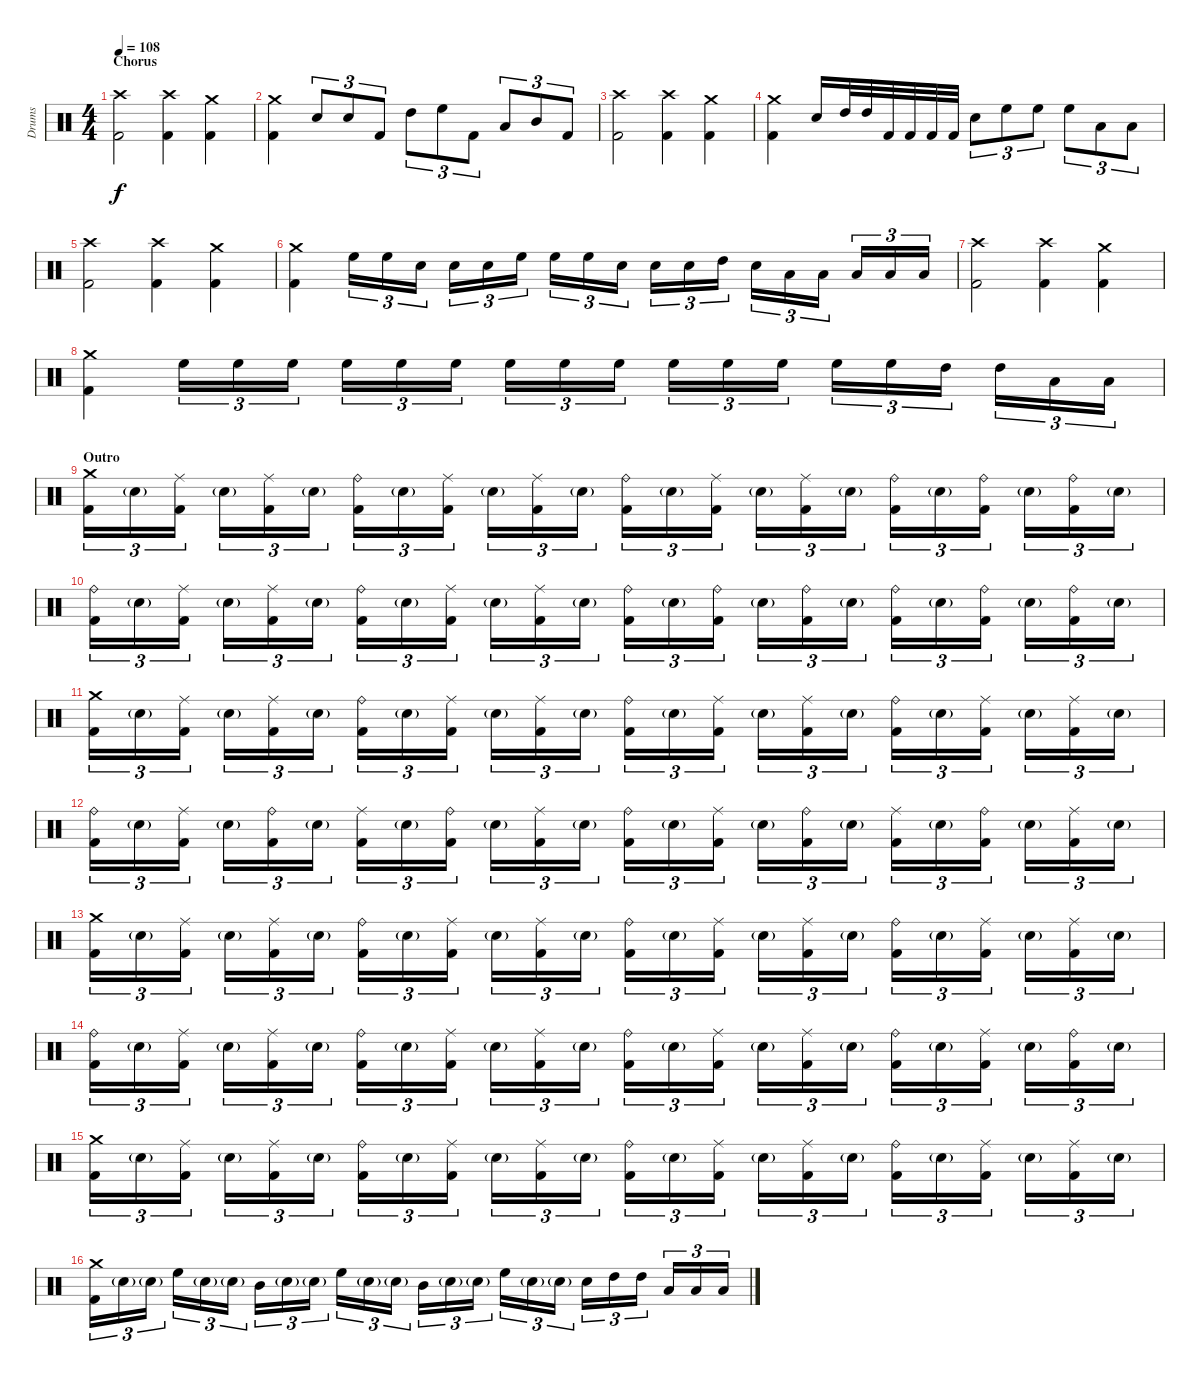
\track ("Drums" "Drums") {instrument percussion}
\staff {score}
\articulation defaults
\ts (4 4)
\section ("" "Chorus")
\tempo 108
\clef neutral
\ks c
("Crash high (hit)" "Kick (hit) 2").2{dy f} ("Crash high (hit)" "Kick (hit) 2").4 ("Crash medium (hit)" "Kick (hit) 2").4 |
("Crash medium (hit)" "Kick (hit) 2").4 "Snare (hit) 2".8{tu (3 2)} "Snare (hit) 2".8{tu (3 2)} "Kick (hit) 2".8{tu (3 2)} "High Tom (hit)".8{tu (3 2)} "High Floor Tom (hit)".8{tu (3 2)} "Kick (hit) 2".8{tu (3 2)} "Low Tom (hit)".8{tu (3 2)} "Mid Tom (hit)".8{tu (3 2)} "Kick (hit) 2".8{tu (3 2)} |
("Crash high (hit)" "Kick (hit) 2").2 ("Crash high (hit)" "Kick (hit) 2").4 ("Crash medium (hit)" "Kick (hit) 2").4 |
("Crash medium (hit)" "Kick (hit) 2").4 "Snare (hit) 2".16 "High Tom (hit)".32 "High Tom (hit)".32 "Kick (hit) 2".32 "Kick (hit) 2".32 "Kick (hit) 2".32 "Kick (hit) 2".32 "Snare (hit) 2".8{tu (3 2)} "High Floor Tom (hit)".8{tu (3 2)} "High Floor Tom (hit)".8{tu (3 2)} "High Floor Tom (hit)".8{tu (3 2)} "Low Tom (hit)".8{tu (3 2)} "Low Tom (hit)".8{tu (3 2)} |
("Crash high (hit)" "Kick (hit) 2").2 ("Crash high (hit)" "Kick (hit) 2").4 ("Crash medium (hit)" "Kick (hit) 2").4 |
("Crash medium (hit)" "Kick (hit) 2").4 "High Floor Tom (hit)".16{tu (3 2)} "High Floor Tom (hit)".16{tu (3 2)} "Snare (hit) 2".16{tu (3 2)} "Snare (hit) 2".16{tu (3 2)} "Snare (hit) 2".16{tu (3 2)} "High Floor Tom (hit)".16{tu (3 2)} "High Floor Tom (hit)".16{tu (3 2)} "High Floor Tom (hit)".16{tu (3 2)} "Snare (hit) 2".16{tu (3 2)} "Snare (hit) 2".16{tu (3 2)} "Snare (hit) 2".16{tu (3 2)} "High Tom (hit)".16{tu (3 2)} "Snare (hit) 2".16{tu (3 2)} "Low Tom (hit)".16{tu (3 2)} "Low Tom (hit)".16{tu (3 2)} "Low Tom (hit)".16{tu (3 2)} "Low Tom (hit)".16{tu (3 2)} "Low Tom (hit)".16{tu (3 2)} |
("Crash high (hit)" "Kick (hit) 2").2 ("Crash high (hit)" "Kick (hit) 2").4 ("Crash medium (hit)" "Kick (hit) 2").4 |
("Crash medium (hit)" "Kick (hit) 2").4 "High Floor Tom (hit)".16{tu (3 2)} "High Floor Tom (hit)".16{tu (3 2)} "High Floor Tom (hit)".16{tu (3 2)} "High Floor Tom (hit)".16{tu (3 2)} "High Floor Tom (hit)".16{tu (3 2)} "High Floor Tom (hit)".16{tu (3 2)} "High Floor Tom (hit)".16{tu (3 2)} "High Floor Tom (hit)".16{tu (3 2)} "High Floor Tom (hit)".16{tu (3 2)} "High Floor Tom (hit)".16{tu (3 2)} "High Floor Tom (hit)".16{tu (3 2)} "High Floor Tom (hit)".16{tu (3 2)} "High Floor Tom (hit)".16{tu (3 2)} "High Floor Tom (hit)".16{tu (3 2)} "High Tom (hit)".16{tu (3 2)} "High Tom (hit)".16{tu (3 2)} "Low Tom (hit)".16{tu (3 2)} "Low Tom (hit)".16{tu (3 2)} |
\section ("" "Outro")
("Crash medium (hit)" "Kick (hit) 2").16{tu (3 2)} "Snare (hit) 2"{g}.16{tu (3 2)} ("Ride (middle)" "Kick (hit) 2").16{tu (3 2)} "Snare (hit) 2"{g}.16{tu (3 2)} ("Ride (middle)" "Kick (hit) 2").16{tu (3 2)} "Snare (hit) 2"{g}.16{tu (3 2)} ("Ride (bell)" "Kick (hit) 2").16{tu (3 2)} "Snare (hit) 2"{g}.16{tu (3 2)} ("Ride (middle)" "Kick (hit) 2").16{tu (3 2)} "Snare (hit) 2"{g}.16{tu (3 2)} ("Ride (middle)" "Kick (hit) 2").16{tu (3 2)} "Snare (hit) 2"{g}.16{tu (3 2)} ("Ride (bell)" "Kick (hit) 2").16{tu (3 2)} "Snare (hit) 2"{g}.16{tu (3 2)} ("Ride (middle)" "Kick (hit) 2").16{tu (3 2)} "Snare (hit) 2"{g}.16{tu (3 2)} ("Ride (middle)" "Kick (hit) 2").16{tu (3 2)} "Snare (hit) 2"{g}.16{tu (3 2)} ("Ride (bell)" "Kick (hit) 2").16{tu (3 2)} "Snare (hit) 2"{g}.16{tu (3 2)} ("Ride (bell)" "Kick (hit) 2").16{tu (3 2)} "Snare (hit) 2"{g}.16{tu (3 2)} ("Ride (bell)" "Kick (hit) 2").16{tu (3 2)} "Snare (hit) 2"{g}.16{tu (3 2)} |
("Ride (bell)" "Kick (hit) 2").16{tu (3 2)} "Snare (hit) 2"{g}.16{tu (3 2)} ("Ride (middle)" "Kick (hit) 2").16{tu (3 2)} "Snare (hit) 2"{g}.16{tu (3 2)} ("Ride (middle)" "Kick (hit) 2").16{tu (3 2)} "Snare (hit) 2"{g}.16{tu (3 2)} ("Ride (bell)" "Kick (hit) 2").16{tu (3 2)} "Snare (hit) 2"{g}.16{tu (3 2)} ("Ride (middle)" "Kick (hit) 2").16{tu (3 2)} "Snare (hit) 2"{g}.16{tu (3 2)} ("Ride (middle)" "Kick (hit) 2").16{tu (3 2)} "Snare (hit) 2"{g}.16{tu (3 2)} ("Ride (bell)" "Kick (hit) 2").16{tu (3 2)} "Snare (hit) 2"{g}.16{tu (3 2)} ("Ride (bell)" "Kick (hit) 2").16{tu (3 2)} "Snare (hit) 2"{g}.16{tu (3 2)} ("Ride (bell)" "Kick (hit) 2").16{tu (3 2)} "Snare (hit) 2"{g}.16{tu (3 2)} ("Ride (bell)" "Kick (hit) 2").16{tu (3 2)} "Snare (hit) 2"{g}.16{tu (3 2)} ("Ride (bell)" "Kick (hit) 2").16{tu (3 2)} "Snare (hit) 2"{g}.16{tu (3 2)} ("Ride (bell)" "Kick (hit) 2").16{tu (3 2)} "Snare (hit) 2"{g}.16{tu (3 2)} |
("Crash medium (hit)" "Kick (hit) 2").16{tu (3 2)} "Snare (hit) 2"{g}.16{tu (3 2)} ("Ride (middle)" "Kick (hit) 2").16{tu (3 2)} "Snare (hit) 2"{g}.16{tu (3 2)} ("Ride (middle)" "Kick (hit) 2").16{tu (3 2)} "Snare (hit) 2"{g}.16{tu (3 2)} ("Ride (bell)" "Kick (hit) 2").16{tu (3 2)} "Snare (hit) 2"{g}.16{tu (3 2)} ("Ride (middle)" "Kick (hit) 2").16{tu (3 2)} "Snare (hit) 2"{g}.16{tu (3 2)} ("Ride (middle)" "Kick (hit) 2").16{tu (3 2)} "Snare (hit) 2"{g}.16{tu (3 2)} ("Ride (bell)" "Kick (hit) 2").16{tu (3 2)} "Snare (hit) 2"{g}.16{tu (3 2)} ("Ride (middle)" "Kick (hit) 2").16{tu (3 2)} "Snare (hit) 2"{g}.16{tu (3 2)} ("Ride (middle)" "Kick (hit) 2").16{tu (3 2)} "Snare (hit) 2"{g}.16{tu (3 2)} ("Ride (bell)" "Kick (hit) 2").16{tu (3 2)} "Snare (hit) 2"{g}.16{tu (3 2)} ("Ride (middle)" "Kick (hit) 2").16{tu (3 2)} "Snare (hit) 2"{g}.16{tu (3 2)} ("Ride (middle)" "Kick (hit) 2").16{tu (3 2)} "Snare (hit) 2"{g}.16{tu (3 2)} |
("Ride (bell)" "Kick (hit) 2").16{tu (3 2)} "Snare (hit) 2"{g}.16{tu (3 2)} ("Ride (middle)" "Kick (hit) 2").16{tu (3 2)} "Snare (hit) 2"{g}.16{tu (3 2)} ("Ride (bell)" "Kick (hit) 2").16{tu (3 2)} "Snare (hit) 2"{g}.16{tu (3 2)} ("Ride (middle)" "Kick (hit) 2").16{tu (3 2)} "Snare (hit) 2"{g}.16{tu (3 2)} ("Ride (bell)" "Kick (hit) 2").16{tu (3 2)} "Snare (hit) 2"{g}.16{tu (3 2)} ("Ride (middle)" "Kick (hit) 2").16{tu (3 2)} "Snare (hit) 2"{g}.16{tu (3 2)} ("Ride (bell)" "Kick (hit) 2").16{tu (3 2)} "Snare (hit) 2"{g}.16{tu (3 2)} ("Ride (middle)" "Kick (hit) 2").16{tu (3 2)} "Snare (hit) 2"{g}.16{tu (3 2)} ("Ride (bell)" "Kick (hit) 2").16{tu (3 2)} "Snare (hit) 2"{g}.16{tu (3 2)} ("Ride (middle)" "Kick (hit) 2").16{tu (3 2)} "Snare (hit) 2"{g}.16{tu (3 2)} ("Ride (bell)" "Kick (hit) 2").16{tu (3 2)} "Snare (hit) 2"{g}.16{tu (3 2)} ("Ride (middle)" "Kick (hit) 2").16{tu (3 2)} "Snare (hit) 2"{g}.16{tu (3 2)} |
("Crash medium (hit)" "Kick (hit) 2").16{tu (3 2)} "Snare (hit) 2"{g}.16{tu (3 2)} ("Ride (middle)" "Kick (hit) 2").16{tu (3 2)} "Snare (hit) 2"{g}.16{tu (3 2)} ("Ride (middle)" "Kick (hit) 2").16{tu (3 2)} "Snare (hit) 2"{g}.16{tu (3 2)} ("Ride (bell)" "Kick (hit) 2").16{tu (3 2)} "Snare (hit) 2"{g}.16{tu (3 2)} ("Ride (middle)" "Kick (hit) 2").16{tu (3 2)} "Snare (hit) 2"{g}.16{tu (3 2)} ("Ride (middle)" "Kick (hit) 2").16{tu (3 2)} "Snare (hit) 2"{g}.16{tu (3 2)} ("Ride (bell)" "Kick (hit) 2").16{tu (3 2)} "Snare (hit) 2"{g}.16{tu (3 2)} ("Ride (middle)" "Kick (hit) 2").16{tu (3 2)} "Snare (hit) 2"{g}.16{tu (3 2)} ("Ride (middle)" "Kick (hit) 2").16{tu (3 2)} "Snare (hit) 2"{g}.16{tu (3 2)} ("Ride (bell)" "Kick (hit) 2").16{tu (3 2)} "Snare (hit) 2"{g}.16{tu (3 2)} ("Ride (middle)" "Kick (hit) 2").16{tu (3 2)} "Snare (hit) 2"{g}.16{tu (3 2)} ("Ride (middle)" "Kick (hit) 2").16{tu (3 2)} "Snare (hit) 2"{g}.16{tu (3 2)} |
("Ride (bell)" "Kick (hit) 2").16{tu (3 2)} "Snare (hit) 2"{g}.16{tu (3 2)} ("Ride (middle)" "Kick (hit) 2").16{tu (3 2)} "Snare (hit) 2"{g}.16{tu (3 2)} ("Ride (middle)" "Kick (hit) 2").16{tu (3 2)} "Snare (hit) 2"{g}.16{tu (3 2)} ("Ride (bell)" "Kick (hit) 2").16{tu (3 2)} "Snare (hit) 2"{g}.16{tu (3 2)} ("Ride (middle)" "Kick (hit) 2").16{tu (3 2)} "Snare (hit) 2"{g}.16{tu (3 2)} ("Ride (middle)" "Kick (hit) 2").16{tu (3 2)} "Snare (hit) 2"{g}.16{tu (3 2)} ("Ride (bell)" "Kick (hit) 2").16{tu (3 2)} "Snare (hit) 2"{g}.16{tu (3 2)} ("Ride (middle)" "Kick (hit) 2").16{tu (3 2)} "Snare (hit) 2"{g}.16{tu (3 2)} ("Ride (middle)" "Kick (hit) 2").16{tu (3 2)} "Snare (hit) 2"{g}.16{tu (3 2)} ("Ride (bell)" "Kick (hit) 2").16{tu (3 2)} "Snare (hit) 2"{g}.16{tu (3 2)} ("Ride (middle)" "Kick (hit) 2").16{tu (3 2)} "Snare (hit) 2"{g}.16{tu (3 2)} ("Ride (bell)" "Kick (hit) 2").16{tu (3 2)} "Snare (hit) 2"{g}.16{tu (3 2)} |
("Crash medium (hit)" "Kick (hit) 2").16{tu (3 2)} "Snare (hit) 2"{g}.16{tu (3 2)} ("Ride (middle)" "Kick (hit) 2").16{tu (3 2)} "Snare (hit) 2"{g}.16{tu (3 2)} ("Ride (middle)" "Kick (hit) 2").16{tu (3 2)} "Snare (hit) 2"{g}.16{tu (3 2)} ("Ride (bell)" "Kick (hit) 2").16{tu (3 2)} "Snare (hit) 2"{g}.16{tu (3 2)} ("Ride (middle)" "Kick (hit) 2").16{tu (3 2)} "Snare (hit) 2"{g}.16{tu (3 2)} ("Ride (middle)" "Kick (hit) 2").16{tu (3 2)} "Snare (hit) 2"{g}.16{tu (3 2)} ("Ride (bell)" "Kick (hit) 2").16{tu (3 2)} "Snare (hit) 2"{g}.16{tu (3 2)} ("Ride (middle)" "Kick (hit) 2").16{tu (3 2)} "Snare (hit) 2"{g}.16{tu (3 2)} ("Ride (middle)" "Kick (hit) 2").16{tu (3 2)} "Snare (hit) 2"{g}.16{tu (3 2)} ("Ride (bell)" "Kick (hit) 2").16{tu (3 2)} "Snare (hit) 2"{g}.16{tu (3 2)} ("Ride (middle)" "Kick (hit) 2").16{tu (3 2)} "Snare (hit) 2"{g}.16{tu (3 2)} ("Ride (middle)" "Kick (hit) 2").16{tu (3 2)} "Snare (hit) 2"{g}.16{tu (3 2)} |
("Crash medium (hit)" "Kick (hit) 2").16{tu (3 2)} "Snare (hit) 2"{g}.16{tu (3 2)} "Snare (hit) 2"{g}.16{tu (3 2)} "High Floor Tom (hit)".16{tu (3 2)} "Snare (hit) 2"{g}.16{tu (3 2)} "Snare (hit) 2"{g}.16{tu (3 2)} "Mid Tom (hit)".16{tu (3 2)} "Snare (hit) 2"{g}.16{tu (3 2)} "Snare (hit) 2"{g}.16{tu (3 2)} "High Floor Tom (hit)".16{tu (3 2)} "Snare (hit) 2"{g}.16{tu (3 2)} "Snare (hit) 2"{g}.16{tu (3 2)} "Mid Tom (hit)".16{tu (3 2)} "Snare (hit) 2"{g}.16{tu (3 2)} "Snare (hit) 2"{g}.16{tu (3 2)} "High Floor Tom (hit)".16{tu (3 2)} "Snare (hit) 2"{g}.16{tu (3 2)} "Snare (hit) 2"{g}.16{tu (3 2)} "Snare (hit) 2".16{tu (3 2)} "High Tom (hit)".16{tu (3 2)} "High Tom (hit)".16{tu (3 2)} "Low Tom (hit)".16{tu (3 2)} "Low Tom (hit)".16{tu (3 2)} "Low Tom (hit)".16{tu (3 2)}
